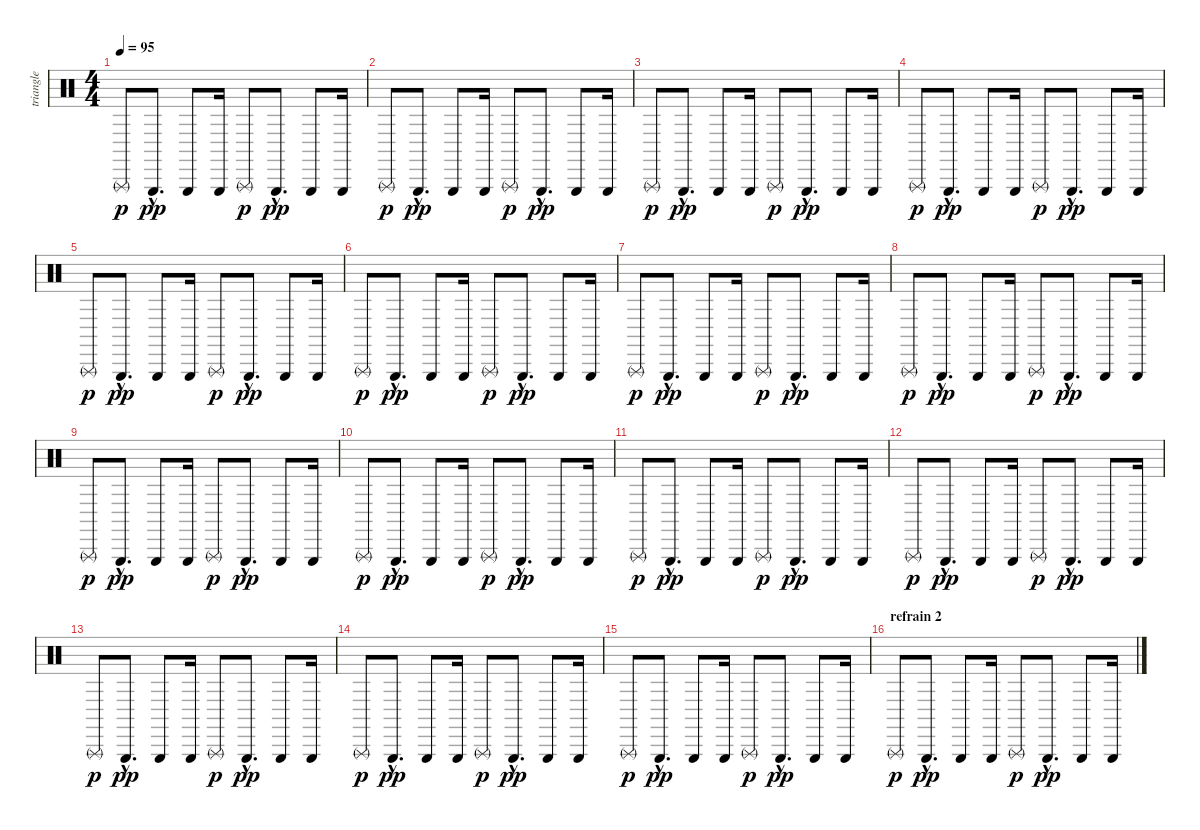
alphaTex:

\track ("triangle" "triangle") {instrument percussion}
\staff {score}
\articulation defaults
\ts (4 4)
\tempo 95
\clef neutral
\ks c "Triangle (rnute)".8{dy p} "Triangle (hit)"{hac}.8{d dy pp} "Triangle (hit)".8 "Triangle (hit)".16 "Triangle (rnute)".8{dy p} "Triangle (hit)"{hac}.8{d dy pp} "Triangle (hit)".8 "Triangle (hit)".16
|
"Triangle (rnute)".8{dy p} "Triangle (hit)"{hac}.8{d dy pp} "Triangle (hit)".8 "Triangle (hit)".16 "Triangle (rnute)".8{dy p} "Triangle (hit)"{hac}.8{d dy pp} "Triangle (hit)".8 "Triangle (hit)".16 |
"Triangle (rnute)".8{dy p} "Triangle (hit)"{hac}.8{d dy pp} "Triangle (hit)".8 "Triangle (hit)".16 "Triangle (rnute)".8{dy p} "Triangle (hit)"{hac}.8{d dy pp} "Triangle (hit)".8 "Triangle (hit)".16 |
"Triangle (rnute)".8{dy p} "Triangle (hit)"{hac}.8{d dy pp} "Triangle (hit)".8 "Triangle (hit)".16 "Triangle (rnute)".8{dy p} "Triangle (hit)"{hac}.8{d dy pp} "Triangle (hit)".8 "Triangle (hit)".16 |
"Triangle (rnute)".8{dy p} "Triangle (hit)"{hac}.8{d dy pp} "Triangle (hit)".8 "Triangle (hit)".16 "Triangle (rnute)".8{dy p} "Triangle (hit)"{hac}.8{d dy pp} "Triangle (hit)".8 "Triangle (hit)".16 |
"Triangle (rnute)".8{dy p} "Triangle (hit)"{hac}.8{d dy pp} "Triangle (hit)".8 "Triangle (hit)".16 "Triangle (rnute)".8{dy p} "Triangle (hit)"{hac}.8{d dy pp} "Triangle (hit)".8 "Triangle (hit)".16 |
"Triangle (rnute)".8{dy p} "Triangle (hit)"{hac}.8{d dy pp} "Triangle (hit)".8 "Triangle (hit)".16 "Triangle (rnute)".8{dy p} "Triangle (hit)"{hac}.8{d dy pp} "Triangle (hit)".8 "Triangle (hit)".16 |
"Triangle (rnute)".8{dy p} "Triangle (hit)"{hac}.8{d dy pp} "Triangle (hit)".8 "Triangle (hit)".16 "Triangle (rnute)".8{dy p} "Triangle (hit)"{hac}.8{d dy pp} "Triangle (hit)".8 "Triangle (hit)".16 |
"Triangle (rnute)".8{dy p} "Triangle (hit)"{hac}.8{d dy pp} "Triangle (hit)".8 "Triangle (hit)".16 "Triangle (rnute)".8{dy p} "Triangle (hit)"{hac}.8{d dy pp} "Triangle (hit)".8 "Triangle (hit)".16 |
"Triangle (rnute)".8{dy p} "Triangle (hit)"{hac}.8{d dy pp} "Triangle (hit)".8 "Triangle (hit)".16 "Triangle (rnute)".8{dy p} "Triangle (hit)"{hac}.8{d dy pp} "Triangle (hit)".8 "Triangle (hit)".16 |
"Triangle (rnute)".8{dy p} "Triangle (hit)"{hac}.8{d dy pp} "Triangle (hit)".8 "Triangle (hit)".16 "Triangle (rnute)".8{dy p} "Triangle (hit)"{hac}.8{d dy pp} "Triangle (hit)".8 "Triangle (hit)".16 |
"Triangle (rnute)".8{dy p} "Triangle (hit)"{hac}.8{d dy pp} "Triangle (hit)".8 "Triangle (hit)".16 "Triangle (rnute)".8{dy p} "Triangle (hit)"{hac}.8{d dy pp} "Triangle (hit)".8 "Triangle (hit)".16 |
"Triangle (rnute)".8{dy p} "Triangle (hit)"{hac}.8{d dy pp} "Triangle (hit)".8 "Triangle (hit)".16 "Triangle (rnute)".8{dy p} "Triangle (hit)"{hac}.8{d dy pp} "Triangle (hit)".8 "Triangle (hit)".16 |
"Triangle (rnute)".8{dy p} "Triangle (hit)"{hac}.8{d dy pp} "Triangle (hit)".8 "Triangle (hit)".16 "Triangle (rnute)".8{dy p} "Triangle (hit)"{hac}.8{d dy pp} "Triangle (hit)".8 "Triangle (hit)".16 |
"Triangle (rnute)".8{dy p} "Triangle (hit)"{hac}.8{d dy pp} "Triangle (hit)".8 "Triangle (hit)".16 "Triangle (rnute)".8{dy p} "Triangle (hit)"{hac}.8{d dy pp} "Triangle (hit)".8 "Triangle (hit)".16 |
\section ("" "refrain 2")
"Triangle (rnute)".8{dy p} "Triangle (hit)"{hac}.8{d dy pp} "Triangle (hit)".8 "Triangle (hit)".16 "Triangle (rnute)".8{dy p} "Triangle (hit)"{hac}.8{d dy pp} "Triangle (hit)".8 "Triangle (hit)".16
